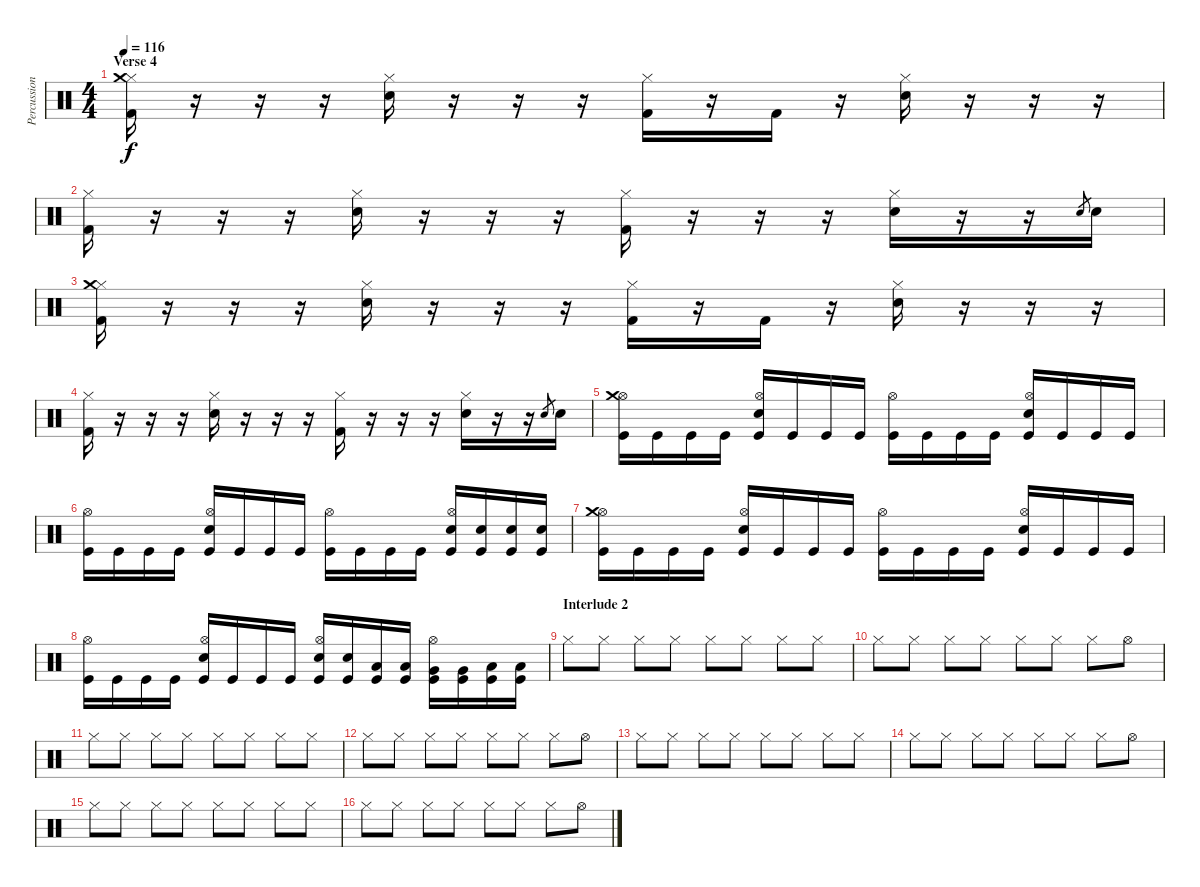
\track ("Percussion" "Percussion") {instrument percussion}
\staff {score}
\articulation defaults
\ts (4 4)
\section ("" "Verse 4")
\tempo 116
\clef neutral
\ks c
("Hi-Hat (closed)" "Crash medium (hit)" "Kick (hit) 2").16{dy f} r.16 r.16 r.16 ("Hi-Hat (closed)" "Snare (hit) 2").16 r.16 r.16 r.16 ("Hi-Hat (closed)" "Kick (hit) 2").16 r.16 "Kick (hit) 2".16 r.16 ("Hi-Hat (closed)" "Snare (hit) 2").16 r.16 r.16 r.16 |
("Hi-Hat (closed)" "Kick (hit) 2").16 r.16 r.16 r.16 ("Hi-Hat (closed)" "Snare (hit) 2").16 r.16 r.16 r.16 ("Hi-Hat (closed)" "Kick (hit) 2").16 r.16 r.16 r.16 ("Hi-Hat (closed)" "Snare (hit) 2").16 r.16 r.16 "Snare (hit) 2".8{gr} "Snare (hit) 2".16 |
("Hi-Hat (closed)" "Crash medium (hit)" "Kick (hit) 2").16 r.16 r.16 r.16 ("Hi-Hat (closed)" "Snare (hit) 2").16 r.16 r.16 r.16 ("Hi-Hat (closed)" "Kick (hit) 2").16 r.16 "Kick (hit) 2".16 r.16 ("Hi-Hat (closed)" "Snare (hit) 2").16 r.16 r.16 r.16 |
("Hi-Hat (closed)" "Kick (hit) 2").16 r.16 r.16 r.16 ("Hi-Hat (closed)" "Snare (hit) 2").16 r.16 r.16 r.16 ("Hi-Hat (closed)" "Kick (hit) 2").16 r.16 r.16 r.16 ("Hi-Hat (closed)" "Snare (hit) 2").16 r.16 r.16 "Snare (hit) 2".8{gr} "Snare (hit) 2".16 |
("Hi-Hat (open)" "Crash medium (hit)" "Kick (hit)").16 "Kick (hit)".16 "Kick (hit)".16 "Kick (hit)".16 ("Hi-Hat (open)" "Snare (hit) 2" "Kick (hit)").16 "Kick (hit)".16 "Kick (hit)".16 "Kick (hit)".16 ("Hi-Hat (open)" "Kick (hit)").16 "Kick (hit)".16 "Kick (hit)".16 "Kick (hit)".16 ("Hi-Hat (open)" "Snare (hit) 2" "Kick (hit)").16 "Kick (hit)".16 "Kick (hit)".16 "Kick (hit)".16 |
("Hi-Hat (open)" "Kick (hit)").16 "Kick (hit)".16 "Kick (hit)".16 "Kick (hit)".16 ("Hi-Hat (open)" "Snare (hit) 2" "Kick (hit)").16 "Kick (hit)".16 "Kick (hit)".16 "Kick (hit)".16 ("Hi-Hat (open)" "Kick (hit)").16 "Kick (hit)".16 "Kick (hit)".16 "Kick (hit)".16 ("Hi-Hat (open)" "Snare (hit) 2" "Kick (hit)").16 ("Snare (hit) 2" "Kick (hit)").16 ("Snare (hit) 2" "Kick (hit)").16 ("Snare (hit) 2" "Kick (hit)").16 |
("Hi-Hat (open)" "Crash medium (hit)" "Kick (hit)").16 "Kick (hit)".16 "Kick (hit)".16 "Kick (hit)".16 ("Hi-Hat (open)" "Snare (hit) 2" "Kick (hit)").16 "Kick (hit)".16 "Kick (hit)".16 "Kick (hit)".16 ("Hi-Hat (open)" "Kick (hit)").16 "Kick (hit)".16 "Kick (hit)".16 "Kick (hit)".16 ("Hi-Hat (open)" "Snare (hit) 2" "Kick (hit)").16 "Kick (hit)".16 "Kick (hit)".16 "Kick (hit)".16 |
("Hi-Hat (open)" "Kick (hit)").16 "Kick (hit)".16 "Kick (hit)".16 "Kick (hit)".16 ("Hi-Hat (open)" "Snare (hit) 2" "Kick (hit)").16 "Kick (hit)".16 "Kick (hit)".16 "Kick (hit)".16 ("Hi-Hat (open)" "Snare (hit) 2" "Kick (hit)").16 ("Snare (hit) 2" "Kick (hit)").16 ("Low Tom (hit)" "Kick (hit)").16 ("Low Tom (hit)" "Kick (hit)").16 ("Hi-Hat (open)" "Very Low Tom (hit)" "Kick (hit)").16 ("Very Low Tom (hit)" "Kick (hit)").16 ("Low Floor Tom (hit)" "Kick (hit)").16 ("Low Floor Tom (hit)" "Kick (hit)").16 |
\section ("" "Interlude 2")
"Hi-Hat (closed)".8 "Hi-Hat (closed)".8 "Hi-Hat (closed)".8 "Hi-Hat (closed)".8 "Hi-Hat (closed)".8 "Hi-Hat (closed)".8 "Hi-Hat (closed)".8 "Hi-Hat (closed)".8 |
"Hi-Hat (closed)".8 "Hi-Hat (closed)".8 "Hi-Hat (closed)".8 "Hi-Hat (closed)".8 "Hi-Hat (closed)".8 "Hi-Hat (closed)".8 "Hi-Hat (closed)".8 "Hi-Hat (open)".8 |
"Hi-Hat (closed)".8 "Hi-Hat (closed)".8 "Hi-Hat (closed)".8 "Hi-Hat (closed)".8 "Hi-Hat (closed)".8 "Hi-Hat (closed)".8 "Hi-Hat (closed)".8 "Hi-Hat (closed)".8 |
"Hi-Hat (closed)".8 "Hi-Hat (closed)".8 "Hi-Hat (closed)".8 "Hi-Hat (closed)".8 "Hi-Hat (closed)".8 "Hi-Hat (closed)".8 "Hi-Hat (closed)".8 "Hi-Hat (open)".8 |
"Hi-Hat (closed)".8 "Hi-Hat (closed)".8 "Hi-Hat (closed)".8 "Hi-Hat (closed)".8 "Hi-Hat (closed)".8 "Hi-Hat (closed)".8 "Hi-Hat (closed)".8 "Hi-Hat (closed)".8 |
"Hi-Hat (closed)".8 "Hi-Hat (closed)".8 "Hi-Hat (closed)".8 "Hi-Hat (closed)".8 "Hi-Hat (closed)".8 "Hi-Hat (closed)".8 "Hi-Hat (closed)".8 "Hi-Hat (open)".8 |
"Hi-Hat (closed)".8 "Hi-Hat (closed)".8 "Hi-Hat (closed)".8 "Hi-Hat (closed)".8 "Hi-Hat (closed)".8 "Hi-Hat (closed)".8 "Hi-Hat (closed)".8 "Hi-Hat (closed)".8 |
"Hi-Hat (closed)".8 "Hi-Hat (closed)".8 "Hi-Hat (closed)".8 "Hi-Hat (closed)".8 "Hi-Hat (closed)".8 "Hi-Hat (closed)".8 "Hi-Hat (closed)".8 "Hi-Hat (open)".8
